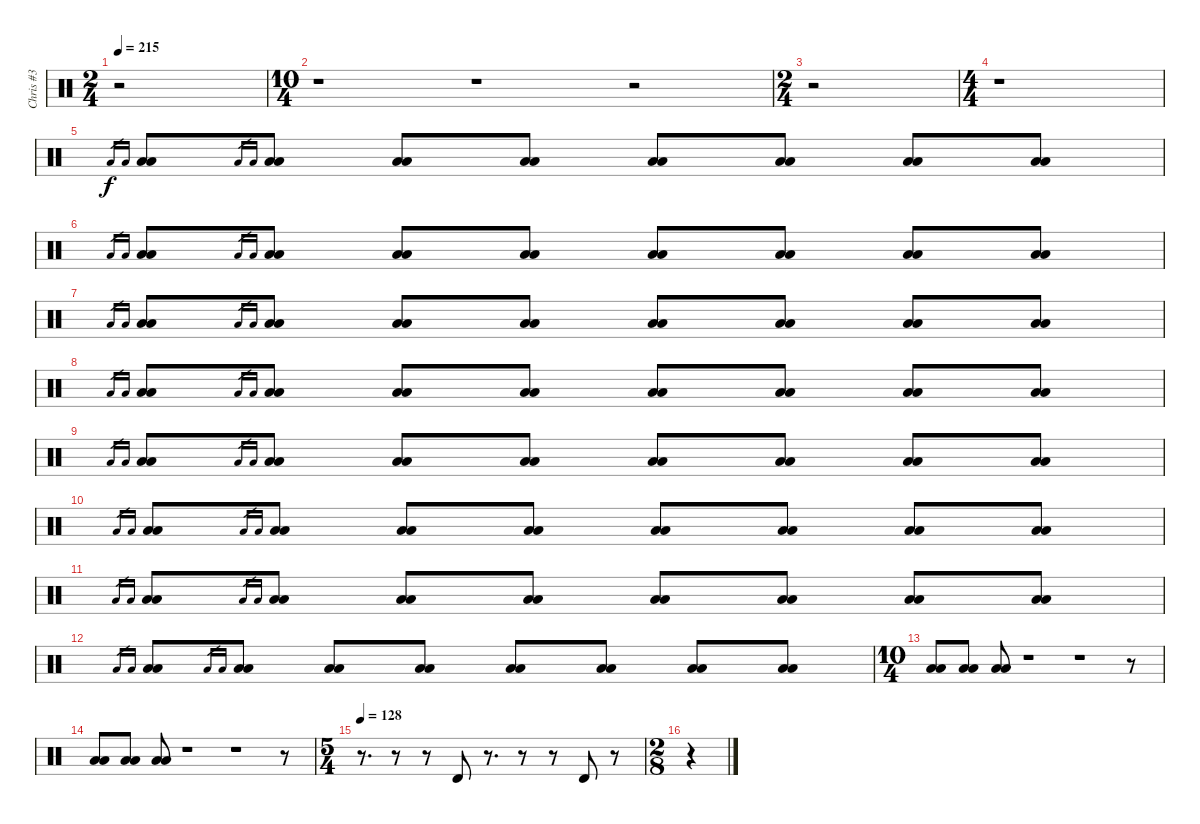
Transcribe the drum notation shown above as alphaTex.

\track ("Chris #3" "Chris #3") {instrument percussion}
\staff {score}
\articulation defaults
\ts (2 4)
\tempo 215
\clef neutral
\ks c
r.2{dy f} |
\ts (10 4)
r.1 r.1 r.2 |
\ts (2 4)
r.2 |
\ts (4 4)
r.1 |
"Low Floor Tom (hit)"{sl}.16{gr} "Low Floor Tom (hit)"{sl}.16{gr} ("Low Floor Tom (hit)" "Low Floor Tom (hit)").8 "Low Floor Tom (hit)"{sl}.16{gr} "Low Floor Tom (hit)"{sl}.16{gr} ("Low Floor Tom (hit)" "Low Floor Tom (hit)").8 ("Low Floor Tom (hit)" "Low Floor Tom (hit)").8 ("Low Floor Tom (hit)" "Low Floor Tom (hit)").8 ("Low Floor Tom (hit)" "Low Floor Tom (hit)").8 ("Low Floor Tom (hit)" "Low Floor Tom (hit)").8 ("Low Floor Tom (hit)" "Low Floor Tom (hit)").8 ("Low Floor Tom (hit)" "Low Floor Tom (hit)").8 |
"Low Floor Tom (hit)"{sl}.16{gr} "Low Floor Tom (hit)"{sl}.16{gr} ("Low Floor Tom (hit)" "Low Floor Tom (hit)").8 "Low Floor Tom (hit)"{sl}.16{gr} "Low Floor Tom (hit)"{sl}.16{gr} ("Low Floor Tom (hit)" "Low Floor Tom (hit)").8 ("Low Floor Tom (hit)" "Low Floor Tom (hit)").8 ("Low Floor Tom (hit)" "Low Floor Tom (hit)").8 ("Low Floor Tom (hit)" "Low Floor Tom (hit)").8 ("Low Floor Tom (hit)" "Low Floor Tom (hit)").8 ("Low Floor Tom (hit)" "Low Floor Tom (hit)").8 ("Low Floor Tom (hit)" "Low Floor Tom (hit)").8 |
"Low Floor Tom (hit)"{sl}.16{gr} "Low Floor Tom (hit)"{sl}.16{gr} ("Low Floor Tom (hit)" "Low Floor Tom (hit)").8 "Low Floor Tom (hit)"{sl}.16{gr} "Low Floor Tom (hit)"{sl}.16{gr} ("Low Floor Tom (hit)" "Low Floor Tom (hit)").8 ("Low Floor Tom (hit)" "Low Floor Tom (hit)").8 ("Low Floor Tom (hit)" "Low Floor Tom (hit)").8 ("Low Floor Tom (hit)" "Low Floor Tom (hit)").8 ("Low Floor Tom (hit)" "Low Floor Tom (hit)").8 ("Low Floor Tom (hit)" "Low Floor Tom (hit)").8 ("Low Floor Tom (hit)" "Low Floor Tom (hit)").8 |
"Low Floor Tom (hit)"{sl}.16{gr} "Low Floor Tom (hit)"{sl}.16{gr} ("Low Floor Tom (hit)" "Low Floor Tom (hit)").8 "Low Floor Tom (hit)"{sl}.16{gr} "Low Floor Tom (hit)"{sl}.16{gr} ("Low Floor Tom (hit)" "Low Floor Tom (hit)").8 ("Low Floor Tom (hit)" "Low Floor Tom (hit)").8 ("Low Floor Tom (hit)" "Low Floor Tom (hit)").8 ("Low Floor Tom (hit)" "Low Floor Tom (hit)").8 ("Low Floor Tom (hit)" "Low Floor Tom (hit)").8 ("Low Floor Tom (hit)" "Low Floor Tom (hit)").8 ("Low Floor Tom (hit)" "Low Floor Tom (hit)").8 |
"Low Floor Tom (hit)"{sl}.16{gr} "Low Floor Tom (hit)"{sl}.16{gr} ("Low Floor Tom (hit)" "Low Floor Tom (hit)").8 "Low Floor Tom (hit)"{sl}.16{gr} "Low Floor Tom (hit)"{sl}.16{gr} ("Low Floor Tom (hit)" "Low Floor Tom (hit)").8 ("Low Floor Tom (hit)" "Low Floor Tom (hit)").8 ("Low Floor Tom (hit)" "Low Floor Tom (hit)").8 ("Low Floor Tom (hit)" "Low Floor Tom (hit)").8 ("Low Floor Tom (hit)" "Low Floor Tom (hit)").8 ("Low Floor Tom (hit)" "Low Floor Tom (hit)").8 ("Low Floor Tom (hit)" "Low Floor Tom (hit)").8 |
"Low Floor Tom (hit)"{sl}.16{gr} "Low Floor Tom (hit)"{sl}.16{gr} ("Low Floor Tom (hit)" "Low Floor Tom (hit)").8 "Low Floor Tom (hit)"{sl}.16{gr} "Low Floor Tom (hit)"{sl}.16{gr} ("Low Floor Tom (hit)" "Low Floor Tom (hit)").8 ("Low Floor Tom (hit)" "Low Floor Tom (hit)").8 ("Low Floor Tom (hit)" "Low Floor Tom (hit)").8 ("Low Floor Tom (hit)" "Low Floor Tom (hit)").8 ("Low Floor Tom (hit)" "Low Floor Tom (hit)").8 ("Low Floor Tom (hit)" "Low Floor Tom (hit)").8 ("Low Floor Tom (hit)" "Low Floor Tom (hit)").8 |
"Low Floor Tom (hit)"{sl}.16{gr} "Low Floor Tom (hit)"{sl}.16{gr} ("Low Floor Tom (hit)" "Low Floor Tom (hit)").8 "Low Floor Tom (hit)"{sl}.16{gr} "Low Floor Tom (hit)"{sl}.16{gr} ("Low Floor Tom (hit)" "Low Floor Tom (hit)").8 ("Low Floor Tom (hit)" "Low Floor Tom (hit)").8 ("Low Floor Tom (hit)" "Low Floor Tom (hit)").8 ("Low Floor Tom (hit)" "Low Floor Tom (hit)").8 ("Low Floor Tom (hit)" "Low Floor Tom (hit)").8 ("Low Floor Tom (hit)" "Low Floor Tom (hit)").8 ("Low Floor Tom (hit)" "Low Floor Tom (hit)").8 |
"Low Floor Tom (hit)"{sl}.16{gr} "Low Floor Tom (hit)"{sl}.16{gr} ("Low Floor Tom (hit)" "Low Floor Tom (hit)").8 "Low Floor Tom (hit)"{sl}.16{gr} "Low Floor Tom (hit)"{sl}.16{gr} ("Low Floor Tom (hit)" "Low Floor Tom (hit)").8 ("Low Floor Tom (hit)" "Low Floor Tom (hit)").8 ("Low Floor Tom (hit)" "Low Floor Tom (hit)").8 ("Low Floor Tom (hit)" "Low Floor Tom (hit)").8 ("Low Floor Tom (hit)" "Low Floor Tom (hit)").8 ("Low Floor Tom (hit)" "Low Floor Tom (hit)").8 ("Low Floor Tom (hit)" "Low Floor Tom (hit)").8 |
\ts (10 4)
("Low Floor Tom (hit)" "Low Floor Tom (hit)").8{volume 16} ("Low Floor Tom (hit)" "Low Floor Tom (hit)").8 ("Low Floor Tom (hit)" "Low Floor Tom (hit)").8 r.1 r.1 r.8 |
("Low Floor Tom (hit)" "Low Floor Tom (hit)").8{volume 16} ("Low Floor Tom (hit)" "Low Floor Tom (hit)").8 ("Low Floor Tom (hit)" "Low Floor Tom (hit)").8 r.1 r.1 r.8{volume 10} |
\ts (5 4)
\tempo 128
r.8{d} r.8 r.8 "Timbale high (hit)".8 r.8{d} r.8 r.8 "Timbale high (hit)".8 r.8 |
\ts (2 8)
r.4
